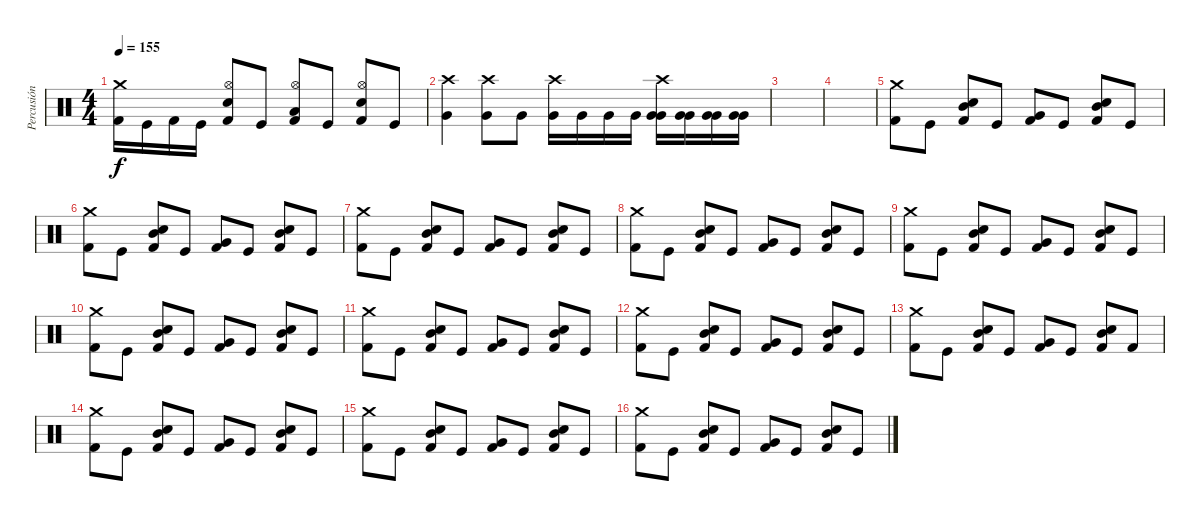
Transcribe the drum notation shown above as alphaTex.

\track ("Percusión" "Percusión") {instrument percussion}
\staff {score}
\articulation defaults
\ts (4 4)
\tempo 155
\clef neutral
\ks c
("Crash medium (hit)" "Kick (hit) 2").16{dy f} "Kick (hit)".16 "Kick (hit) 2".16 "Kick (hit)".16 ("Hi-Hat (open)" "Electric Snare (hit)" "Kick (hit) 2").8 "Kick (hit)".8 ("Hi-Hat (open)" "Low Floor Tom (hit)" "Kick (hit) 2").8 "Kick (hit)".8 ("Hi-Hat (open)" "Electric Snare (hit)" "Kick (hit) 2").8 "Kick (hit)".8 |
("Very Low Tom (hit)" "Crash high (hit)").4 ("Very Low Tom (hit)" "Crash high (hit)").8 "Very Low Tom (hit)".8 ("Very Low Tom (hit)" "Crash high (hit)").16 "Very Low Tom (hit)".16 "Very Low Tom (hit)".16 "Very Low Tom (hit)".16 ("Very Low Tom (hit)" "Very Low Tom (hit)" "Crash high (hit)").16 ("Very Low Tom (hit)" "Very Low Tom (hit)").16 ("Very Low Tom (hit)" "Very Low Tom (hit)").16 ("Very Low Tom (hit)" "Very Low Tom (hit)").16 |
|
|
("Crash medium (hit)" "Kick (hit) 2").8 "Kick (hit)".8 ("Mid Tom (hit)" "Electric Snare (hit)" "Kick (hit) 2").8 "Kick (hit)".8 ("Very Low Tom (hit)" "Kick (hit) 2").8 "Kick (hit)".8 ("Mid Tom (hit)" "Electric Snare (hit)" "Kick (hit) 2").8 "Kick (hit)".8 |
("Crash medium (hit)" "Kick (hit) 2").8 "Kick (hit)".8 ("Mid Tom (hit)" "Electric Snare (hit)" "Kick (hit) 2").8 "Kick (hit)".8 ("Very Low Tom (hit)" "Kick (hit) 2").8 "Kick (hit)".8 ("Mid Tom (hit)" "Electric Snare (hit)" "Kick (hit) 2").8 "Kick (hit)".8 |
("Crash medium (hit)" "Kick (hit) 2").8 "Kick (hit)".8 ("Mid Tom (hit)" "Electric Snare (hit)" "Kick (hit) 2").8 "Kick (hit)".8 ("Very Low Tom (hit)" "Kick (hit) 2").8 "Kick (hit)".8 ("Mid Tom (hit)" "Electric Snare (hit)" "Kick (hit) 2").8 "Kick (hit)".8 |
("Crash medium (hit)" "Kick (hit) 2").8 "Kick (hit)".8 ("Mid Tom (hit)" "Electric Snare (hit)" "Kick (hit) 2").8 "Kick (hit)".8 ("Very Low Tom (hit)" "Kick (hit) 2").8 "Kick (hit)".8 ("Mid Tom (hit)" "Electric Snare (hit)" "Kick (hit) 2").8 "Kick (hit)".8 |
("Crash medium (hit)" "Kick (hit) 2").8 "Kick (hit)".8 ("Mid Tom (hit)" "Electric Snare (hit)" "Kick (hit) 2").8 "Kick (hit)".8 ("Very Low Tom (hit)" "Kick (hit) 2").8 "Kick (hit)".8 ("Mid Tom (hit)" "Electric Snare (hit)" "Kick (hit) 2").8 "Kick (hit)".8 |
("Crash medium (hit)" "Kick (hit) 2").8 "Kick (hit)".8 ("Mid Tom (hit)" "Electric Snare (hit)" "Kick (hit) 2").8 "Kick (hit)".8 ("Very Low Tom (hit)" "Kick (hit) 2").8 "Kick (hit)".8 ("Mid Tom (hit)" "Electric Snare (hit)" "Kick (hit) 2").8 "Kick (hit)".8 |
("Crash medium (hit)" "Kick (hit) 2").8 "Kick (hit)".8 ("Mid Tom (hit)" "Electric Snare (hit)" "Kick (hit) 2").8 "Kick (hit)".8 ("Very Low Tom (hit)" "Kick (hit) 2").8 "Kick (hit)".8 ("Mid Tom (hit)" "Electric Snare (hit)" "Kick (hit) 2").8 "Kick (hit)".8 |
("Crash medium (hit)" "Kick (hit) 2").8 "Kick (hit)".8 ("Mid Tom (hit)" "Electric Snare (hit)" "Kick (hit) 2").8 "Kick (hit)".8 ("Very Low Tom (hit)" "Kick (hit) 2").8 "Kick (hit)".8 ("Mid Tom (hit)" "Electric Snare (hit)" "Kick (hit) 2").8 "Kick (hit)".8 |
("Crash medium (hit)" "Kick (hit) 2").8 "Kick (hit)".8 ("Mid Tom (hit)" "Electric Snare (hit)" "Kick (hit) 2").8 "Kick (hit)".8 ("Very Low Tom (hit)" "Kick (hit) 2").8 "Kick (hit)".8 ("Mid Tom (hit)" "Electric Snare (hit)" "Kick (hit) 2").8 "Kick (hit) 2".8 |
("Crash medium (hit)" "Kick (hit) 2").8 "Kick (hit)".8 ("Mid Tom (hit)" "Electric Snare (hit)" "Kick (hit) 2").8 "Kick (hit)".8 ("Very Low Tom (hit)" "Kick (hit) 2").8 "Kick (hit)".8 ("Mid Tom (hit)" "Electric Snare (hit)" "Kick (hit) 2").8 "Kick (hit)".8 |
("Crash medium (hit)" "Kick (hit) 2").8 "Kick (hit)".8 ("Mid Tom (hit)" "Electric Snare (hit)" "Kick (hit) 2").8 "Kick (hit)".8 ("Very Low Tom (hit)" "Kick (hit) 2").8 "Kick (hit)".8 ("Mid Tom (hit)" "Electric Snare (hit)" "Kick (hit) 2").8 "Kick (hit)".8 |
("Crash medium (hit)" "Kick (hit) 2").8 "Kick (hit)".8 ("Mid Tom (hit)" "Electric Snare (hit)" "Kick (hit) 2").8 "Kick (hit)".8 ("Very Low Tom (hit)" "Kick (hit) 2").8 "Kick (hit)".8 ("Mid Tom (hit)" "Electric Snare (hit)" "Kick (hit) 2").8 "Kick (hit)".8
